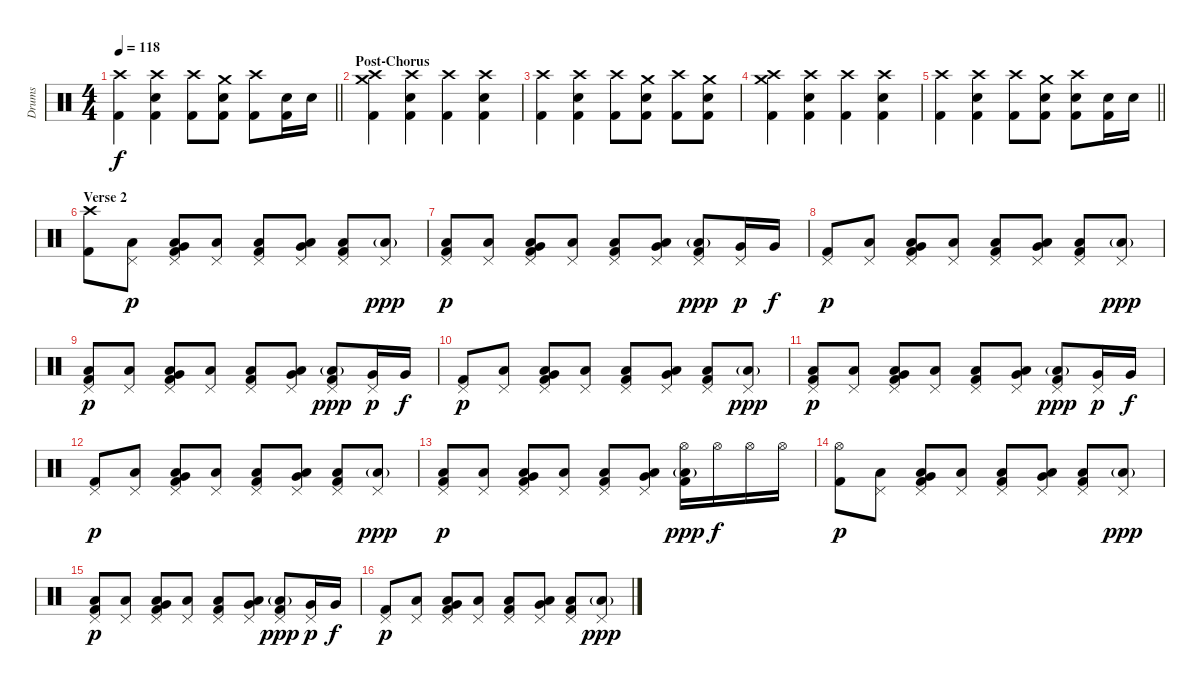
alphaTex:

\track ("Drums" "Drums") {instrument percussion}
\staff {score}
\articulation defaults
\ts (4 4)
\tempo 118
\clef neutral
\barLineRight lightlight
\ks c
("Crash high (hit)" "Kick (hit) 2").4{dy f} ("Crash high (hit)" "Snare (hit) 2" "Kick (hit) 2").4 ("Crash high (hit)" "Kick (hit) 2").8 ("Crash medium (hit)" "Snare (hit) 2" "Kick (hit) 2").8 ("Crash high (hit)" "Kick (hit) 2").8 ("Snare (hit) 2" "Kick (hit) 2").16 "Snare (hit) 2".16 |
\section ("" "Post-Chorus")
("Crash medium (hit)" "Crash high (hit)" "Kick (hit) 2").4 ("Crash high (hit)" "Snare (hit) 2" "Kick (hit) 2").4 ("Crash high (hit)" "Kick (hit) 2").4 ("Crash high (hit)" "Snare (hit) 2" "Kick (hit) 2").4 |
("Crash high (hit)" "Kick (hit) 2").4 ("Crash high (hit)" "Snare (hit) 2" "Kick (hit) 2").4 ("Crash high (hit)" "Kick (hit) 2").8 ("Crash medium (hit)" "Snare (hit) 2" "Kick (hit) 2").8 ("Crash high (hit)" "Kick (hit) 2").8 ("Crash medium (hit)" "Snare (hit) 2" "Kick (hit) 2").8 |
("Crash medium (hit)" "Crash high (hit)" "Kick (hit) 2").4 ("Crash high (hit)" "Snare (hit) 2" "Kick (hit) 2").4 ("Crash high (hit)" "Kick (hit) 2").4 ("Crash high (hit)" "Snare (hit) 2" "Kick (hit) 2").4 |
\barLineRight lightlight
("Crash high (hit)" "Kick (hit) 2").4 ("Crash high (hit)" "Snare (hit) 2" "Kick (hit) 2").4 ("Crash high (hit)" "Kick (hit) 2").8 ("Crash medium (hit)" "Snare (hit) 2" "Kick (hit) 2").8 ("Crash high (hit)" "Snare (hit) 2" "Kick (hit) 2").8 ("Snare (hit) 2" "Kick (hit) 2").16 "Snare (hit) 2".16 |
\section ("" "Verse 2")
("Crash high (hit)" "Kick (hit) 2").8 ("Pedal Hi-Hat (hit)" "Low Floor Tom (hit)").8{dy p} ("Pedal Hi-Hat (hit)" "Very Low Tom (hit)" "Low Floor Tom (hit)" "Kick (hit) 2").8 ("Pedal Hi-Hat (hit)" "Low Floor Tom (hit)").8 ("Pedal Hi-Hat (hit)" "Low Floor Tom (hit)" "Kick (hit) 2").8 ("Pedal Hi-Hat (hit)" "Very Low Tom (hit)" "Low Floor Tom (hit)").8 ("Pedal Hi-Hat (hit)" "Low Floor Tom (hit)" "Kick (hit) 2").8 ("Pedal Hi-Hat (hit)" "Low Floor Tom (hit)"{g}).8{dy ppp} |
("Pedal Hi-Hat (hit)" "Low Floor Tom (hit)" "Kick (hit) 2").8{dy p} ("Pedal Hi-Hat (hit)" "Low Floor Tom (hit)").8 ("Pedal Hi-Hat (hit)" "Very Low Tom (hit)" "Low Floor Tom (hit)" "Kick (hit) 2").8 ("Pedal Hi-Hat (hit)" "Low Floor Tom (hit)").8 ("Pedal Hi-Hat (hit)" "Low Floor Tom (hit)" "Kick (hit) 2").8 ("Pedal Hi-Hat (hit)" "Very Low Tom (hit)" "Low Floor Tom (hit)").8 ("Pedal Hi-Hat (hit)" "Low Floor Tom (hit)"{g} "Kick (hit) 2").8{dy ppp} ("Pedal Hi-Hat (hit)" "Very Low Tom (hit)").16{dy p} "Very Low Tom (hit)".16{dy f} |
("Pedal Hi-Hat (hit)" "Kick (hit) 2").8{dy p} ("Pedal Hi-Hat (hit)" "Low Floor Tom (hit)").8 ("Pedal Hi-Hat (hit)" "Very Low Tom (hit)" "Low Floor Tom (hit)" "Kick (hit) 2").8 ("Pedal Hi-Hat (hit)" "Low Floor Tom (hit)").8 ("Pedal Hi-Hat (hit)" "Low Floor Tom (hit)" "Kick (hit) 2").8 ("Pedal Hi-Hat (hit)" "Very Low Tom (hit)" "Low Floor Tom (hit)").8 ("Pedal Hi-Hat (hit)" "Low Floor Tom (hit)" "Kick (hit) 2").8 ("Pedal Hi-Hat (hit)" "Low Floor Tom (hit)"{g}).8{dy ppp} |
("Pedal Hi-Hat (hit)" "Low Floor Tom (hit)" "Kick (hit) 2").8{dy p} ("Pedal Hi-Hat (hit)" "Low Floor Tom (hit)").8 ("Pedal Hi-Hat (hit)" "Very Low Tom (hit)" "Low Floor Tom (hit)" "Kick (hit) 2").8 ("Pedal Hi-Hat (hit)" "Low Floor Tom (hit)").8 ("Pedal Hi-Hat (hit)" "Low Floor Tom (hit)" "Kick (hit) 2").8 ("Pedal Hi-Hat (hit)" "Very Low Tom (hit)" "Low Floor Tom (hit)").8 ("Pedal Hi-Hat (hit)" "Low Floor Tom (hit)"{g} "Kick (hit) 2").8{dy ppp} ("Pedal Hi-Hat (hit)" "Very Low Tom (hit)").16{dy p} "Very Low Tom (hit)".16{dy f} |
("Pedal Hi-Hat (hit)" "Kick (hit) 2").8{dy p} ("Pedal Hi-Hat (hit)" "Low Floor Tom (hit)").8 ("Pedal Hi-Hat (hit)" "Very Low Tom (hit)" "Low Floor Tom (hit)" "Kick (hit) 2").8 ("Pedal Hi-Hat (hit)" "Low Floor Tom (hit)").8 ("Pedal Hi-Hat (hit)" "Low Floor Tom (hit)" "Kick (hit) 2").8 ("Pedal Hi-Hat (hit)" "Very Low Tom (hit)" "Low Floor Tom (hit)").8 ("Pedal Hi-Hat (hit)" "Low Floor Tom (hit)" "Kick (hit) 2").8 ("Pedal Hi-Hat (hit)" "Low Floor Tom (hit)"{g}).8{dy ppp} |
("Pedal Hi-Hat (hit)" "Low Floor Tom (hit)" "Kick (hit) 2").8{dy p} ("Pedal Hi-Hat (hit)" "Low Floor Tom (hit)").8 ("Pedal Hi-Hat (hit)" "Very Low Tom (hit)" "Low Floor Tom (hit)" "Kick (hit) 2").8 ("Pedal Hi-Hat (hit)" "Low Floor Tom (hit)").8 ("Pedal Hi-Hat (hit)" "Low Floor Tom (hit)" "Kick (hit) 2").8 ("Pedal Hi-Hat (hit)" "Very Low Tom (hit)" "Low Floor Tom (hit)").8 ("Pedal Hi-Hat (hit)" "Low Floor Tom (hit)"{g} "Kick (hit) 2").8{dy ppp} ("Pedal Hi-Hat (hit)" "Very Low Tom (hit)").16{dy p} "Very Low Tom (hit)".16{dy f} |
("Pedal Hi-Hat (hit)" "Kick (hit) 2").8{dy p} ("Pedal Hi-Hat (hit)" "Low Floor Tom (hit)").8 ("Pedal Hi-Hat (hit)" "Very Low Tom (hit)" "Low Floor Tom (hit)" "Kick (hit) 2").8 ("Pedal Hi-Hat (hit)" "Low Floor Tom (hit)").8 ("Pedal Hi-Hat (hit)" "Low Floor Tom (hit)" "Kick (hit) 2").8 ("Pedal Hi-Hat (hit)" "Very Low Tom (hit)" "Low Floor Tom (hit)").8 ("Pedal Hi-Hat (hit)" "Low Floor Tom (hit)" "Kick (hit) 2").8 ("Pedal Hi-Hat (hit)" "Low Floor Tom (hit)"{g}).8{dy ppp} |
("Pedal Hi-Hat (hit)" "Low Floor Tom (hit)" "Kick (hit) 2").8{dy p} ("Pedal Hi-Hat (hit)" "Low Floor Tom (hit)").8 ("Pedal Hi-Hat (hit)" "Very Low Tom (hit)" "Low Floor Tom (hit)" "Kick (hit) 2").8 ("Pedal Hi-Hat (hit)" "Low Floor Tom (hit)").8 ("Pedal Hi-Hat (hit)" "Low Floor Tom (hit)" "Kick (hit) 2").8 ("Pedal Hi-Hat (hit)" "Very Low Tom (hit)" "Low Floor Tom (hit)").8 ("Hi-Hat (open)" "Low Floor Tom (hit)"{g} "Kick (hit) 2").16{dy ppp} "Hi-Hat (open)".16{dy f} "Hi-Hat (open)".16 "Hi-Hat (open)".16 |
("Hi-Hat (open)" "Kick (hit) 2").8{dy p} ("Pedal Hi-Hat (hit)" "Low Floor Tom (hit)").8 ("Pedal Hi-Hat (hit)" "Very Low Tom (hit)" "Low Floor Tom (hit)" "Kick (hit) 2").8 ("Pedal Hi-Hat (hit)" "Low Floor Tom (hit)").8 ("Pedal Hi-Hat (hit)" "Low Floor Tom (hit)" "Kick (hit) 2").8 ("Pedal Hi-Hat (hit)" "Very Low Tom (hit)" "Low Floor Tom (hit)").8 ("Pedal Hi-Hat (hit)" "Low Floor Tom (hit)" "Kick (hit) 2").8 ("Pedal Hi-Hat (hit)" "Low Floor Tom (hit)"{g}).8{dy ppp} |
("Pedal Hi-Hat (hit)" "Low Floor Tom (hit)" "Kick (hit) 2").8{dy p} ("Pedal Hi-Hat (hit)" "Low Floor Tom (hit)").8 ("Pedal Hi-Hat (hit)" "Very Low Tom (hit)" "Low Floor Tom (hit)" "Kick (hit) 2").8 ("Pedal Hi-Hat (hit)" "Low Floor Tom (hit)").8 ("Pedal Hi-Hat (hit)" "Low Floor Tom (hit)" "Kick (hit) 2").8 ("Pedal Hi-Hat (hit)" "Very Low Tom (hit)" "Low Floor Tom (hit)").8 ("Pedal Hi-Hat (hit)" "Low Floor Tom (hit)"{g} "Kick (hit) 2").8{dy ppp} ("Pedal Hi-Hat (hit)" "Very Low Tom (hit)").16{dy p} "Very Low Tom (hit)".16{dy f} |
("Pedal Hi-Hat (hit)" "Kick (hit) 2").8{dy p} ("Pedal Hi-Hat (hit)" "Low Floor Tom (hit)").8 ("Pedal Hi-Hat (hit)" "Very Low Tom (hit)" "Low Floor Tom (hit)" "Kick (hit) 2").8 ("Pedal Hi-Hat (hit)" "Low Floor Tom (hit)").8 ("Pedal Hi-Hat (hit)" "Low Floor Tom (hit)" "Kick (hit) 2").8 ("Pedal Hi-Hat (hit)" "Very Low Tom (hit)" "Low Floor Tom (hit)").8 ("Pedal Hi-Hat (hit)" "Low Floor Tom (hit)" "Kick (hit) 2").8 ("Pedal Hi-Hat (hit)" "Low Floor Tom (hit)"{g}).8{dy ppp}
